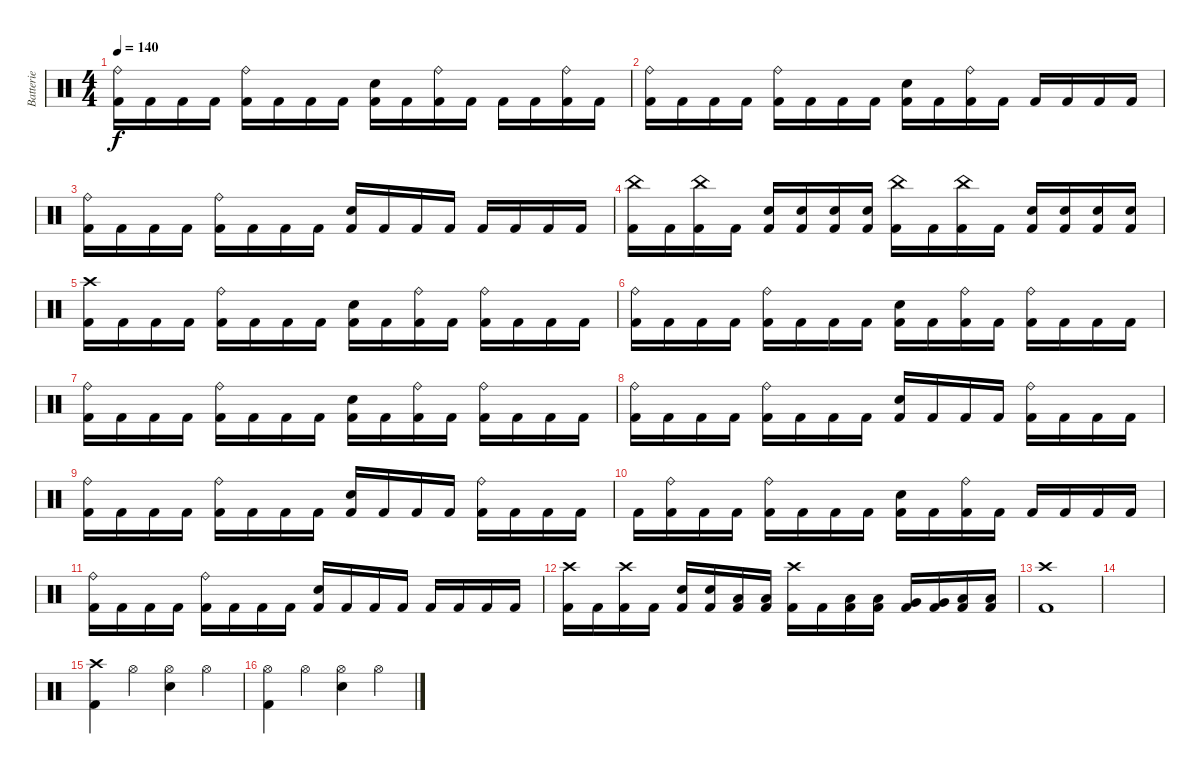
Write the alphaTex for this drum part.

\track ("Batterie" "Batterie") {instrument percussion}
\staff {score}
\articulation defaults
\ts (4 4)
\tempo 140
\clef neutral
\ks c
("Ride (bell)" "Kick (hit) 2").16{dy f} "Kick (hit) 2".16 "Kick (hit) 2".16 "Kick (hit) 2".16 ("Ride (bell)" "Kick (hit) 2").16 "Kick (hit) 2".16 "Kick (hit) 2".16 "Kick (hit) 2".16 ("Electric Snare (hit)" "Kick (hit) 2").16 "Kick (hit) 2".16 ("Ride (bell)" "Kick (hit) 2").16 "Kick (hit) 2".16 "Kick (hit) 2".16 "Kick (hit) 2".16 ("Ride (bell)" "Kick (hit) 2").16 "Kick (hit) 2".16 |
("Ride (bell)" "Kick (hit) 2").16 "Kick (hit) 2".16 "Kick (hit) 2".16 "Kick (hit) 2".16 ("Ride (bell)" "Kick (hit) 2").16 "Kick (hit) 2".16 "Kick (hit) 2".16 "Kick (hit) 2".16 ("Electric Snare (hit)" "Kick (hit) 2").16 "Kick (hit) 2".16 ("Ride (bell)" "Kick (hit) 2").16 "Kick (hit) 2".16 "Kick (hit) 2".16 "Kick (hit) 2".16 "Kick (hit) 2".16 "Kick (hit) 2".16 |
("Ride (bell)" "Kick (hit) 2").16 "Kick (hit) 2".16 "Kick (hit) 2".16 "Kick (hit) 2".16 ("Ride (bell)" "Kick (hit) 2").16 "Kick (hit) 2".16 "Kick (hit) 2".16 "Kick (hit) 2".16 ("Electric Snare (hit)" "Kick (hit) 2").16 "Kick (hit) 2".16 "Kick (hit) 2".16 "Kick (hit) 2".16 "Kick (hit) 2".16 "Kick (hit) 2".16 "Kick (hit) 2".16 "Kick (hit) 2".16 |
("China (hit)" "Kick (hit) 2").16 "Kick (hit) 2".16 ("China (hit)" "Kick (hit) 2").16 "Kick (hit) 2".16 ("Electric Snare (hit)" "Kick (hit) 2").16 ("Electric Snare (hit)" "Kick (hit) 2").16 ("Electric Snare (hit)" "Kick (hit) 2").16 ("Electric Snare (hit)" "Kick (hit) 2").16 ("China (hit)" "Kick (hit) 2").16 "Kick (hit) 2".16 ("China (hit)" "Kick (hit) 2").16 "Kick (hit) 2".16 ("Electric Snare (hit)" "Kick (hit) 2").16 ("Electric Snare (hit)" "Kick (hit) 2").16 ("Electric Snare (hit)" "Kick (hit) 2").16 ("Electric Snare (hit)" "Kick (hit) 2").16 |
("Crash high (hit)" "Kick (hit) 2").16 "Kick (hit) 2".16 "Kick (hit) 2".16 "Kick (hit) 2".16 ("Ride (bell)" "Kick (hit) 2").16 "Kick (hit) 2".16 "Kick (hit) 2".16 "Kick (hit) 2".16 ("Electric Snare (hit)" "Kick (hit) 2").16 "Kick (hit) 2".16 ("Ride (bell)" "Kick (hit) 2").16 "Kick (hit) 2".16 ("Ride (bell)" "Kick (hit) 2").16 "Kick (hit) 2".16 "Kick (hit) 2".16 "Kick (hit) 2".16 |
("Ride (bell)" "Kick (hit) 2").16 "Kick (hit) 2".16 "Kick (hit) 2".16 "Kick (hit) 2".16 ("Ride (bell)" "Kick (hit) 2").16 "Kick (hit) 2".16 "Kick (hit) 2".16 "Kick (hit) 2".16 ("Electric Snare (hit)" "Kick (hit) 2").16 "Kick (hit) 2".16 ("Ride (bell)" "Kick (hit) 2").16 "Kick (hit) 2".16 ("Ride (bell)" "Kick (hit) 2").16 "Kick (hit) 2".16 "Kick (hit) 2".16 "Kick (hit) 2".16 |
("Ride (bell)" "Kick (hit) 2").16 "Kick (hit) 2".16 "Kick (hit) 2".16 "Kick (hit) 2".16 ("Ride (bell)" "Kick (hit) 2").16 "Kick (hit) 2".16 "Kick (hit) 2".16 "Kick (hit) 2".16 ("Electric Snare (hit)" "Kick (hit) 2").16 "Kick (hit) 2".16 ("Ride (bell)" "Kick (hit) 2").16 "Kick (hit) 2".16 ("Ride (bell)" "Kick (hit) 2").16 "Kick (hit) 2".16 "Kick (hit) 2".16 "Kick (hit) 2".16 |
("Ride (bell)" "Kick (hit) 2").16 "Kick (hit) 2".16 "Kick (hit) 2".16 "Kick (hit) 2".16 ("Ride (bell)" "Kick (hit) 2").16 "Kick (hit) 2".16 "Kick (hit) 2".16 "Kick (hit) 2".16 ("Electric Snare (hit)" "Kick (hit) 2").16 "Kick (hit) 2".16 "Kick (hit) 2".16 "Kick (hit) 2".16 ("Ride (bell)" "Kick (hit) 2").16 "Kick (hit) 2".16 "Kick (hit) 2".16 "Kick (hit) 2".16 |
("Ride (bell)" "Kick (hit) 2").16 "Kick (hit) 2".16 "Kick (hit) 2".16 "Kick (hit) 2".16 ("Ride (bell)" "Kick (hit) 2").16 "Kick (hit) 2".16 "Kick (hit) 2".16 "Kick (hit) 2".16 ("Electric Snare (hit)" "Kick (hit) 2").16 "Kick (hit) 2".16 "Kick (hit) 2".16 "Kick (hit) 2".16 ("Ride (bell)" "Kick (hit) 2").16 "Kick (hit) 2".16 "Kick (hit) 2".16 "Kick (hit) 2".16 |
"Kick (hit) 2".16 ("Ride (bell)" "Kick (hit) 2").16 "Kick (hit) 2".16 "Kick (hit) 2".16 ("Ride (bell)" "Kick (hit) 2").16 "Kick (hit) 2".16 "Kick (hit) 2".16 "Kick (hit) 2".16 ("Electric Snare (hit)" "Kick (hit) 2").16 "Kick (hit) 2".16 ("Ride (bell)" "Kick (hit) 2").16 "Kick (hit) 2".16 "Kick (hit) 2".16 "Kick (hit) 2".16 "Kick (hit) 2".16 "Kick (hit) 2".16 |
("Ride (bell)" "Kick (hit) 2").16 "Kick (hit) 2".16 "Kick (hit) 2".16 "Kick (hit) 2".16 ("Ride (bell)" "Kick (hit) 2").16 "Kick (hit) 2".16 "Kick (hit) 2".16 "Kick (hit) 2".16 ("Electric Snare (hit)" "Kick (hit) 2").16 "Kick (hit) 2".16 "Kick (hit) 2".16 "Kick (hit) 2".16 "Kick (hit) 2".16 "Kick (hit) 2".16 "Kick (hit) 2".16 "Kick (hit) 2".16 |
("Crash high (hit)" "Kick (hit) 2").16 "Kick (hit) 2".16 ("Crash high (hit)" "Kick (hit) 2").16 "Kick (hit) 2".16 ("Electric Snare (hit)" "Kick (hit) 2").16 ("Electric Snare (hit)" "Kick (hit) 2").16 ("Low Tom (hit)" "Kick (hit) 2").16 ("Low Tom (hit)" "Kick (hit) 2").16 ("Crash high (hit)" "Kick (hit) 2").16 "Kick (hit) 2".16 ("Low Tom (hit)" "Kick (hit) 2").16 ("Low Tom (hit)" "Kick (hit) 2").16 ("Very Low Tom (hit)" "Kick (hit) 2").16 ("Very Low Tom (hit)" "Kick (hit) 2").16 ("Low Floor Tom (hit)" "Kick (hit) 2").16 ("Low Floor Tom (hit)" "Kick (hit) 2").16 |
("Crash high (hit)" "Kick (hit) 2").1 |
|
("Crash high (hit)" "Kick (hit) 2").4 "Hi-Hat (open)".4 ("Hi-Hat (open)" "Electric Snare (hit)").4 "Hi-Hat (open)".4 |
("Hi-Hat (open)" "Kick (hit) 2").4 "Hi-Hat (open)".4 ("Hi-Hat (open)" "Electric Snare (hit)").4 "Hi-Hat (open)".4
